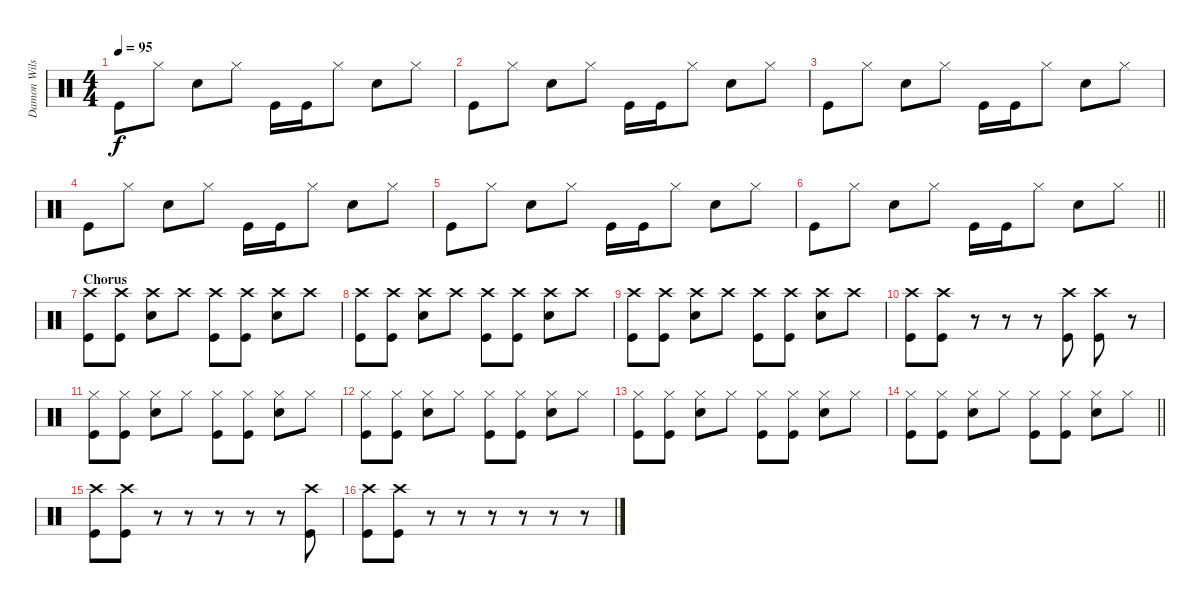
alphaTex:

\track ("Damon Wilson (Drums)" "Damon Wils") {instrument percussion}
\staff {score}
\articulation defaults
\ts (4 4)
\tempo 95
\clef neutral
\ks c "Kick (hit)".8{dy f} "Hi-Hat (closed)".8 "Snare (hit) 2".8 "Hi-Hat (closed)".8 "Kick (hit)".16 "Kick (hit)".16 "Hi-Hat (closed)".8 "Snare (hit) 2".8 "Hi-Hat (closed)".8
|
"Kick (hit)".8 "Hi-Hat (closed)".8 "Snare (hit) 2".8 "Hi-Hat (closed)".8 "Kick (hit)".16 "Kick (hit)".16 "Hi-Hat (closed)".8 "Snare (hit) 2".8 "Hi-Hat (closed)".8 |
"Kick (hit)".8 "Hi-Hat (closed)".8 "Snare (hit) 2".8 "Hi-Hat (closed)".8 "Kick (hit)".16 "Kick (hit)".16 "Hi-Hat (closed)".8 "Snare (hit) 2".8 "Hi-Hat (closed)".8 |
"Kick (hit)".8 "Hi-Hat (closed)".8 "Snare (hit) 2".8 "Hi-Hat (closed)".8 "Kick (hit)".16 "Kick (hit)".16 "Hi-Hat (closed)".8 "Snare (hit) 2".8 "Hi-Hat (closed)".8 |
"Kick (hit)".8 "Hi-Hat (closed)".8 "Snare (hit) 2".8 "Hi-Hat (closed)".8 "Kick (hit)".16 "Kick (hit)".16 "Hi-Hat (closed)".8 "Snare (hit) 2".8 "Hi-Hat (closed)".8 |
\barLineRight lightlight "Kick (hit)".8 "Hi-Hat (closed)".8 "Snare (hit) 2".8 "Hi-Hat (closed)".8 "Kick (hit)".16 "Kick (hit)".16 "Hi-Hat (closed)".8 "Snare (hit) 2".8 "Hi-Hat (closed)".8
|
\section ("" "Chorus")
("Crash high (hit)" "Kick (hit)").8 ("Crash high (hit)" "Kick (hit)").8 ("Crash high (hit)" "Snare (hit) 2").8 "Crash high (hit)".8 ("Crash high (hit)" "Kick (hit)").8 ("Crash high (hit)" "Kick (hit)").8 ("Crash high (hit)" "Snare (hit) 2").8 "Crash high (hit)".8 |
("Crash high (hit)" "Kick (hit)").8 ("Crash high (hit)" "Kick (hit)").8 ("Crash high (hit)" "Snare (hit) 2").8 "Crash high (hit)".8 ("Crash high (hit)" "Kick (hit)").8 ("Crash high (hit)" "Kick (hit)").8 ("Crash high (hit)" "Snare (hit) 2").8 "Crash high (hit)".8 |
("Crash high (hit)" "Kick (hit)").8 ("Crash high (hit)" "Kick (hit)").8 ("Crash high (hit)" "Snare (hit) 2").8 "Crash high (hit)".8 ("Crash high (hit)" "Kick (hit)").8 ("Crash high (hit)" "Kick (hit)").8 ("Crash high (hit)" "Snare (hit) 2").8 "Crash high (hit)".8 |
("Crash high (hit)" "Kick (hit)").8 ("Crash high (hit)" "Kick (hit)").8 r.8 r.8 r.8 ("Crash high (hit)" "Kick (hit)").8 ("Crash high (hit)" "Kick (hit)").8 r.8 |
("Hi-Hat (closed)" "Kick (hit)").8 ("Hi-Hat (closed)" "Kick (hit)").8 ("Hi-Hat (closed)" "Snare (hit) 2").8 "Hi-Hat (closed)".8 ("Hi-Hat (closed)" "Kick (hit)").8 ("Hi-Hat (closed)" "Kick (hit)").8 ("Hi-Hat (closed)" "Snare (hit) 2").8 "Hi-Hat (closed)".8 |
("Hi-Hat (closed)" "Kick (hit)").8 ("Hi-Hat (closed)" "Kick (hit)").8 ("Hi-Hat (closed)" "Snare (hit) 2").8 "Hi-Hat (closed)".8 ("Hi-Hat (closed)" "Kick (hit)").8 ("Hi-Hat (closed)" "Kick (hit)").8 ("Hi-Hat (closed)" "Snare (hit) 2").8 "Hi-Hat (closed)".8 |
("Hi-Hat (closed)" "Kick (hit)").8 ("Hi-Hat (closed)" "Kick (hit)").8 ("Hi-Hat (closed)" "Snare (hit) 2").8 "Hi-Hat (closed)".8 ("Hi-Hat (closed)" "Kick (hit)").8 ("Hi-Hat (closed)" "Kick (hit)").8 ("Hi-Hat (closed)" "Snare (hit) 2").8 "Hi-Hat (closed)".8 |
\barLineRight lightlight
("Hi-Hat (closed)" "Kick (hit)").8 ("Hi-Hat (closed)" "Kick (hit)").8 ("Hi-Hat (closed)" "Snare (hit) 2").8 "Hi-Hat (closed)".8 ("Hi-Hat (closed)" "Kick (hit)").8 ("Hi-Hat (closed)" "Kick (hit)").8 ("Hi-Hat (closed)" "Snare (hit) 2").8 "Hi-Hat (closed)".8 |
("Crash high (hit)" "Kick (hit)").8 ("Crash high (hit)" "Kick (hit)").8 r.8 r.8 r.8 r.8 r.8 ("Crash high (hit)" "Kick (hit)").8 |
("Crash high (hit)" "Kick (hit)").8 ("Crash high (hit)" "Kick (hit)").8 r.8 r.8 r.8 r.8 r.8 r.8
